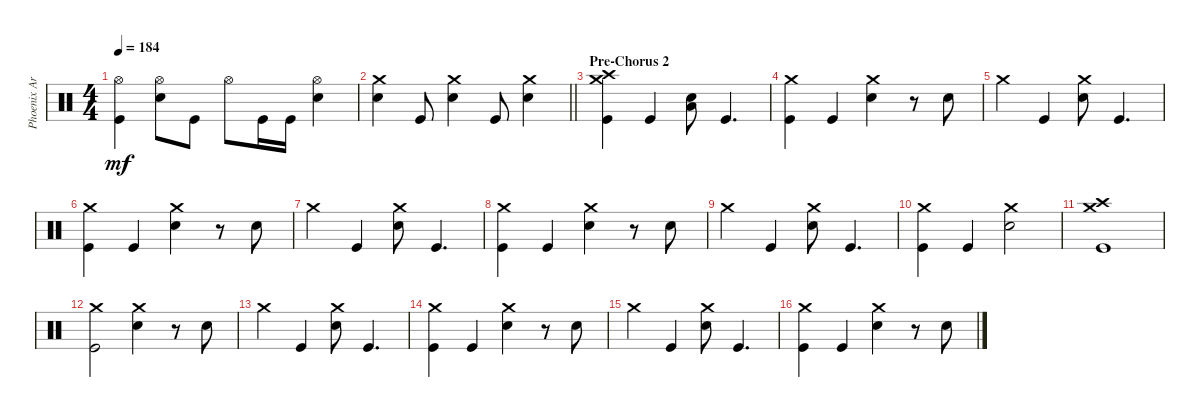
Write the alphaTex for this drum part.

\track ("Phoenix Arn-Horn (Drums)" "Phoenix Ar") {instrument percussion}
\staff {score}
\articulation defaults
\ts (4 4)
\tempo 184
\clef neutral
\ks c
("Kick (hit)" "Hi-Hat (open)").4{dy mf} ("Snare (hit) 2" "Hi-Hat (open)").8 "Kick (hit)".8 "Hi-Hat (open)".8 "Kick (hit)".16 "Kick (hit)".16 ("Snare (hit) 2" "Hi-Hat (open)").4 |
\barLineRight lightlight
("Snare (hit) 2" "Crash medium (hit)").4 "Kick (hit)".8 ("Snare (hit) 2" "Crash medium (hit)").4 "Kick (hit)".8 ("Snare (hit) 2" "Crash medium (hit)").4 |
\section ("" "Pre-Chorus 2")
("Kick (hit)" "Crash medium (hit)" "Crash high (hit)").4 "Kick (hit)".4 ("Snare (hit) 2" "Low Floor Tom (hit)").8 "Kick (hit)".4{d} |
("Kick (hit)" "Crash medium (hit)").4 "Kick (hit)".4 ("Snare (hit) 2" "Crash medium (hit)").4 r.8 "Snare (hit) 2".8 |
"Crash medium (hit)".4 "Kick (hit)".4 ("Snare (hit) 2" "Crash medium (hit)").8 "Kick (hit)".4{d} |
("Kick (hit)" "Crash medium (hit)").4 "Kick (hit)".4 ("Snare (hit) 2" "Crash medium (hit)").4 r.8 "Snare (hit) 2".8 |
"Crash medium (hit)".4 "Kick (hit)".4 ("Snare (hit) 2" "Crash medium (hit)").8 "Kick (hit)".4{d} |
("Kick (hit)" "Crash medium (hit)").4 "Kick (hit)".4 ("Snare (hit) 2" "Crash medium (hit)").4 r.8 "Snare (hit) 2".8 |
"Crash medium (hit)".4 "Kick (hit)".4 ("Snare (hit) 2" "Crash medium (hit)").8 "Kick (hit)".4{d} |
("Kick (hit)" "Crash medium (hit)").4 "Kick (hit)".4 ("Snare (hit) 2" "Crash medium (hit)").2 |
("Kick (hit)" "Crash medium (hit)" "Crash high (hit)").1 |
("Kick (hit)" "Crash medium (hit)").2 ("Snare (hit) 2" "Crash medium (hit)").4 r.8 "Snare (hit) 2".8 |
"Crash medium (hit)".4 "Kick (hit)".4 ("Snare (hit) 2" "Crash medium (hit)").8 "Kick (hit)".4{d} |
("Kick (hit)" "Crash medium (hit)").4 "Kick (hit)".4 ("Snare (hit) 2" "Crash medium (hit)").4 r.8 "Snare (hit) 2".8 |
"Crash medium (hit)".4 "Kick (hit)".4 ("Snare (hit) 2" "Crash medium (hit)").8 "Kick (hit)".4{d} |
("Kick (hit)" "Crash medium (hit)").4 "Kick (hit)".4 ("Snare (hit) 2" "Crash medium (hit)").4 r.8 "Snare (hit) 2".8
